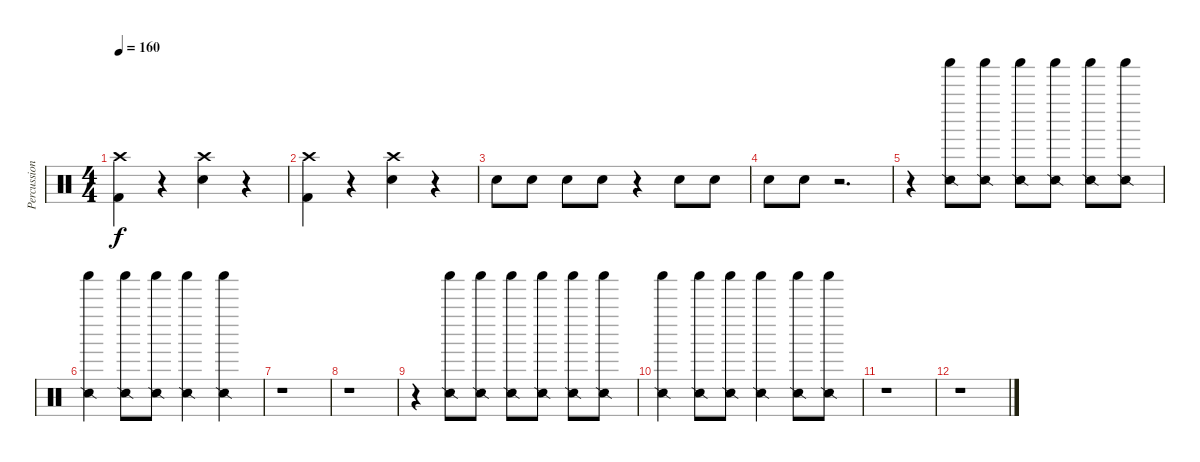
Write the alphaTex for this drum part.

\track ("Percussion" "Percussion") {instrument percussion}
\staff {score}
\articulation defaults
\ts (4 4)
\tempo 160
\clef neutral
\ks c
("Crash high (hit)" "Kick (hit) 2").4{dy f} r.4 ("Crash high (hit)" "Snare (hit) 2").4 r.4 |
("Crash high (hit)" "Kick (hit) 2").4 r.4 ("Crash high (hit)" "Snare (hit) 2").4 r.4 |
"Snare (hit) 2".8 "Snare (hit) 2".8 "Snare (hit) 2".8 "Snare (hit) 2".8 r.4 "Snare (hit) 2".8 "Snare (hit) 2".8 |
"Snare (hit) 2".8 "Snare (hit) 2".8 r.2{d} |
r.4 ("Snare (side stick) 2" "Shaker (hit)").8 ("Snare (side stick) 2" "Shaker (hit)").8 ("Snare (side stick) 2" "Shaker (hit)").8 ("Snare (side stick) 2" "Shaker (hit)").8 ("Snare (side stick) 2" "Shaker (hit)").8 ("Snare (side stick) 2" "Shaker (hit)").8 |
("Snare (side stick) 2" "Shaker (hit)").4 ("Snare (side stick) 2" "Shaker (hit)").8 ("Snare (side stick) 2" "Shaker (hit)").8 ("Snare (side stick) 2" "Shaker (hit)").4 ("Snare (side stick) 2" "Shaker (hit)").4 |
r.1 |
r.1 |
r.4 ("Snare (side stick) 2" "Shaker (hit)").8 ("Snare (side stick) 2" "Shaker (hit)").8 ("Snare (side stick) 2" "Shaker (hit)").8 ("Snare (side stick) 2" "Shaker (hit)").8 ("Snare (side stick) 2" "Shaker (hit)").8 ("Snare (side stick) 2" "Shaker (hit)").8 |
("Snare (side stick) 2" "Shaker (hit)").4 ("Snare (side stick) 2" "Shaker (hit)").8 ("Snare (side stick) 2" "Shaker (hit)").8 ("Snare (side stick) 2" "Shaker (hit)").4 ("Snare (side stick) 2" "Shaker (hit)").8 ("Snare (side stick) 2" "Shaker (hit)").8 |
r.1 |
r.1
